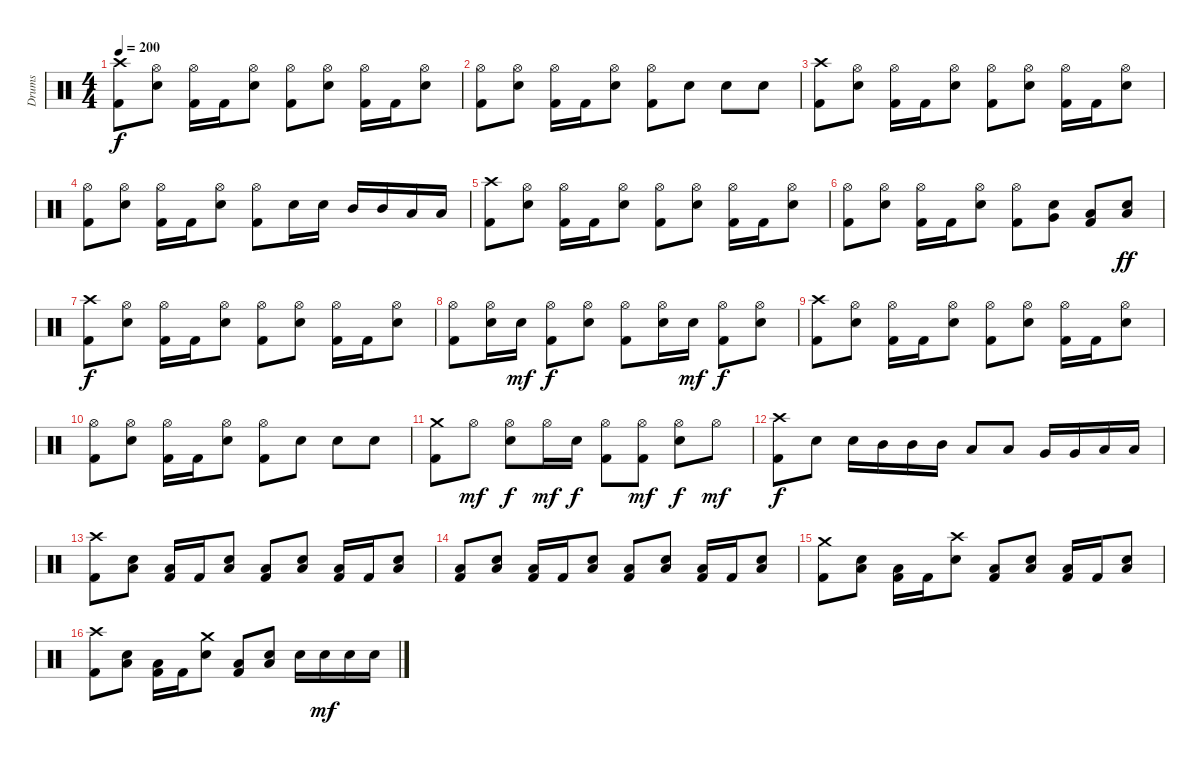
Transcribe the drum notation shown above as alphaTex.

\track ("Drums" "Drums") {instrument percussion}
\staff {score}
\articulation defaults
\ts (4 4)
\tempo 200
\clef neutral
\ks c
("Crash high (hit)" "Kick (hit) 2").8{dy f} ("Hi-Hat (open)" "Electric Snare (hit)").8 ("Hi-Hat (open)" "Kick (hit) 2").16 "Kick (hit) 2".16 ("Hi-Hat (open)" "Electric Snare (hit)").8 ("Hi-Hat (open)" "Kick (hit) 2").8 ("Hi-Hat (open)" "Electric Snare (hit)").8 ("Hi-Hat (open)" "Kick (hit) 2").16 "Kick (hit) 2".16 ("Hi-Hat (open)" "Electric Snare (hit)").8 |
("Hi-Hat (open)" "Kick (hit) 2").8 ("Hi-Hat (open)" "Electric Snare (hit)").8 ("Hi-Hat (open)" "Kick (hit) 2").16 "Kick (hit) 2".16 ("Hi-Hat (open)" "Electric Snare (hit)").8 ("Hi-Hat (open)" "Kick (hit) 2").8 "Electric Snare (hit)".8 "Electric Snare (hit)".8 "Electric Snare (hit)".8 |
("Crash high (hit)" "Kick (hit) 2").8 ("Hi-Hat (open)" "Electric Snare (hit)").8 ("Hi-Hat (open)" "Kick (hit) 2").16 "Kick (hit) 2".16 ("Hi-Hat (open)" "Electric Snare (hit)").8 ("Hi-Hat (open)" "Kick (hit) 2").8 ("Hi-Hat (open)" "Electric Snare (hit)").8 ("Hi-Hat (open)" "Kick (hit) 2").16 "Kick (hit) 2".16 ("Hi-Hat (open)" "Electric Snare (hit)").8 |
("Hi-Hat (open)" "Kick (hit) 2").8 ("Hi-Hat (open)" "Electric Snare (hit)").8 ("Hi-Hat (open)" "Kick (hit) 2").16 "Kick (hit) 2".16 ("Hi-Hat (open)" "Electric Snare (hit)").8 ("Hi-Hat (open)" "Kick (hit) 2").8 "Electric Snare (hit)".16 "Electric Snare (hit)".16 "Mid Tom (hit)".16 "Mid Tom (hit)".16 "Low Tom (hit)".16 "Low Tom (hit)".16 |
("Crash high (hit)" "Kick (hit) 2").8 ("Hi-Hat (open)" "Electric Snare (hit)").8 ("Hi-Hat (open)" "Kick (hit) 2").16 "Kick (hit) 2".16 ("Hi-Hat (open)" "Electric Snare (hit)").8 ("Hi-Hat (open)" "Kick (hit) 2").8 ("Hi-Hat (open)" "Electric Snare (hit)").8 ("Hi-Hat (open)" "Kick (hit) 2").16 "Kick (hit) 2".16 ("Hi-Hat (open)" "Electric Snare (hit)").8 |
("Hi-Hat (open)" "Kick (hit) 2").8 ("Hi-Hat (open)" "Electric Snare (hit)").8 ("Hi-Hat (open)" "Kick (hit) 2").16 "Kick (hit) 2".16 ("Hi-Hat (open)" "Electric Snare (hit)").8 ("Hi-Hat (open)" "Kick (hit) 2").8 ("Very Low Tom (hit)" "Electric Snare (hit)").8 ("Low Floor Tom (hit)" "Kick (hit) 2").8 ("Low Floor Tom (hit)" "Electric Snare (hit)").8{dy ff} |
("Crash high (hit)" "Kick (hit) 2").8{dy f} ("Hi-Hat (open)" "Electric Snare (hit)").8 ("Hi-Hat (open)" "Kick (hit) 2").16 "Kick (hit) 2".16 ("Hi-Hat (open)" "Electric Snare (hit)").8 ("Hi-Hat (open)" "Kick (hit) 2").8 ("Hi-Hat (open)" "Electric Snare (hit)").8 ("Hi-Hat (open)" "Kick (hit) 2").16 "Kick (hit) 2".16 ("Hi-Hat (open)" "Electric Snare (hit)").8 |
("Hi-Hat (open)" "Kick (hit) 2").8 ("Hi-Hat (open)" "Electric Snare (hit)").16 "Electric Snare (hit)".16{dy mf} ("Hi-Hat (open)" "Kick (hit) 2").8{dy f} ("Hi-Hat (open)" "Electric Snare (hit)").8 ("Hi-Hat (open)" "Kick (hit) 2").8 ("Hi-Hat (open)" "Electric Snare (hit)").16 "Electric Snare (hit)".16{dy mf} ("Hi-Hat (open)" "Kick (hit) 2").8{dy f} ("Hi-Hat (open)" "Electric Snare (hit)").8 |
("Crash high (hit)" "Kick (hit) 2").8 ("Hi-Hat (open)" "Electric Snare (hit)").8 ("Hi-Hat (open)" "Kick (hit) 2").16 "Kick (hit) 2".16 ("Hi-Hat (open)" "Electric Snare (hit)").8 ("Hi-Hat (open)" "Kick (hit) 2").8 ("Hi-Hat (open)" "Electric Snare (hit)").8 ("Hi-Hat (open)" "Kick (hit) 2").16 "Kick (hit) 2".16 ("Hi-Hat (open)" "Electric Snare (hit)").8 |
("Hi-Hat (open)" "Kick (hit) 2").8 ("Hi-Hat (open)" "Electric Snare (hit)").8 ("Hi-Hat (open)" "Kick (hit) 2").16 "Kick (hit) 2".16 ("Hi-Hat (open)" "Electric Snare (hit)").8 ("Hi-Hat (open)" "Kick (hit) 2").8 "Electric Snare (hit)".8 "Electric Snare (hit)".8 "Electric Snare (hit)".8 |
("Crash medium (hit)" "Kick (hit) 2").8 "Hi-Hat (open)".8{dy mf} ("Hi-Hat (open)" "Electric Snare (hit)").8{dy f} "Hi-Hat (open)".16{dy mf} "Electric Snare (hit)".16{dy f} ("Hi-Hat (open)" "Kick (hit) 2").8 ("Hi-Hat (open)" "Kick (hit) 2").8{dy mf} ("Hi-Hat (open)" "Electric Snare (hit)").8{dy f} "Hi-Hat (open)".8{dy mf} |
("Crash high (hit)" "Kick (hit) 2").8{dy f} "Electric Snare (hit)".8 "Electric Snare (hit)".16 "Mid Tom (hit)".16 "Mid Tom (hit)".16 "Mid Tom (hit)".16 "Low Tom (hit)".8 "Low Tom (hit)".8 "Very Low Tom (hit)".16 "Very Low Tom (hit)".16 "Low Floor Tom (hit)".16 "Low Floor Tom (hit)".16 |
("Crash high (hit)" "Kick (hit) 2").8 ("Low Floor Tom (hit)" "Electric Snare (hit)").8 ("Low Floor Tom (hit)" "Kick (hit) 2").16 "Kick (hit) 2".16 ("Low Floor Tom (hit)" "Electric Snare (hit)").8 ("Low Floor Tom (hit)" "Kick (hit) 2").8 ("Low Floor Tom (hit)" "Electric Snare (hit)").8 ("Low Floor Tom (hit)" "Kick (hit) 2").16 "Kick (hit) 2".16 ("Low Floor Tom (hit)" "Electric Snare (hit)").8 |
("Low Floor Tom (hit)" "Kick (hit) 2").8 ("Low Floor Tom (hit)" "Electric Snare (hit)").8 ("Low Floor Tom (hit)" "Kick (hit) 2").16 "Kick (hit) 2".16 ("Low Floor Tom (hit)" "Electric Snare (hit)").8 ("Low Floor Tom (hit)" "Kick (hit) 2").8 ("Low Floor Tom (hit)" "Electric Snare (hit)").8 ("Low Floor Tom (hit)" "Kick (hit) 2").16 "Kick (hit) 2".16 ("Low Floor Tom (hit)" "Electric Snare (hit)").8 |
("Crash medium (hit)" "Kick (hit) 2").8 ("Low Floor Tom (hit)" "Electric Snare (hit)").8 ("Low Floor Tom (hit)" "Kick (hit) 2").16 "Kick (hit) 2".16 ("Crash high (hit)" "Electric Snare (hit)").8 ("Low Floor Tom (hit)" "Kick (hit) 2").8 ("Low Floor Tom (hit)" "Electric Snare (hit)").8 ("Low Floor Tom (hit)" "Kick (hit) 2").16 "Kick (hit) 2".16 ("Low Floor Tom (hit)" "Electric Snare (hit)").8 |
("Crash high (hit)" "Kick (hit) 2").8 ("Low Floor Tom (hit)" "Electric Snare (hit)").8 ("Low Floor Tom (hit)" "Kick (hit) 2").16 "Kick (hit) 2".16 ("Crash medium (hit)" "Electric Snare (hit)").8 ("Low Floor Tom (hit)" "Kick (hit) 2").8 ("Low Floor Tom (hit)" "Electric Snare (hit)").8 "Electric Snare (hit)".16 "Electric Snare (hit)".16{dy mf} "Electric Snare (hit)".16 "Electric Snare (hit)".16
